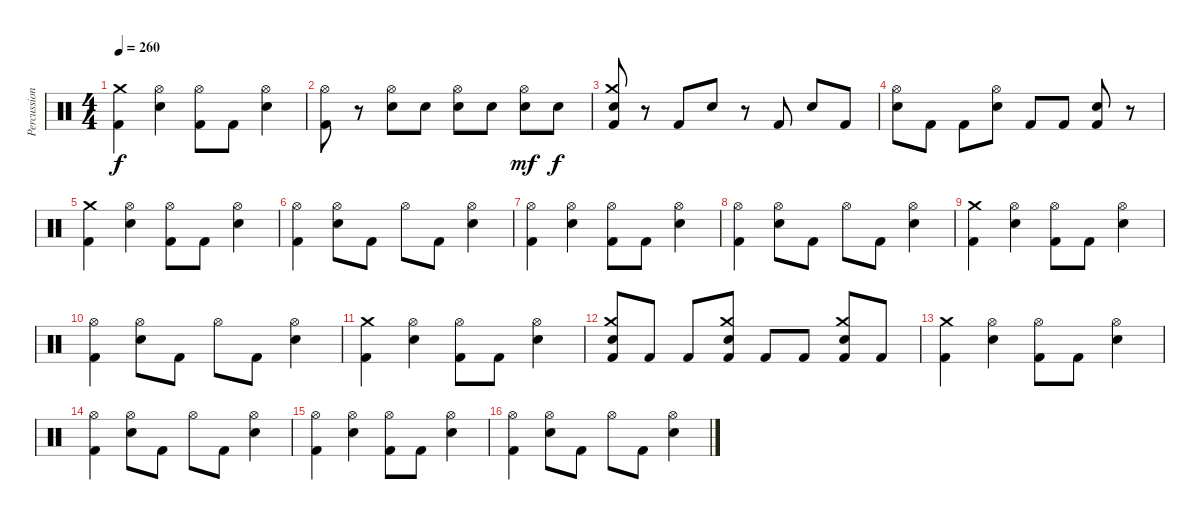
\track ("Percussion" "Percussion") {instrument percussion}
\staff {score}
\articulation defaults
\ts (4 4)
\tempo 260
\clef neutral
\ks c
("Kick (hit) 2" "Crash medium (hit)").4{dy f} ("Electric Snare (hit)" "Hi-Hat (open)").4 ("Kick (hit) 2" "Hi-Hat (open)").8 "Kick (hit) 2".8 ("Electric Snare (hit)" "Hi-Hat (open)").4 |
("Kick (hit) 2" "Hi-Hat (open)").8 r.8 ("Electric Snare (hit)" "Hi-Hat (open)").8 "Electric Snare (hit)".8 ("Electric Snare (hit)" "Hi-Hat (open)").8 "Electric Snare (hit)".8 ("Electric Snare (hit)" "Hi-Hat (open)").8{dy mf} "Electric Snare (hit)".8{dy f} |
("Electric Snare (hit)" "Kick (hit) 2" "Crash medium (hit)").8 r.8 "Kick (hit) 2".8 "Electric Snare (hit)".8 r.8 "Kick (hit) 2".8 "Electric Snare (hit)".8 "Kick (hit) 2".8 |
("Hi-Hat (open)" "Electric Snare (hit)").8 "Kick (hit) 2".8 "Kick (hit) 2".8 ("Hi-Hat (open)" "Electric Snare (hit)").8 "Kick (hit) 2".8 "Kick (hit) 2".8 ("Kick (hit) 2" "Electric Snare (hit)").8 r.8 |
("Kick (hit) 2" "Crash medium (hit)").4 ("Electric Snare (hit)" "Hi-Hat (open)").4 ("Kick (hit) 2" "Hi-Hat (open)").8 "Kick (hit) 2".8 ("Electric Snare (hit)" "Hi-Hat (open)").4 |
("Kick (hit) 2" "Hi-Hat (open)").4 ("Electric Snare (hit)" "Hi-Hat (open)").8 "Kick (hit) 2".8 "Hi-Hat (open)".8 "Kick (hit) 2".8 ("Electric Snare (hit)" "Hi-Hat (open)").4 |
("Kick (hit) 2" "Hi-Hat (open)").4 ("Electric Snare (hit)" "Hi-Hat (open)").4 ("Kick (hit) 2" "Hi-Hat (open)").8 "Kick (hit) 2".8 ("Electric Snare (hit)" "Hi-Hat (open)").4 |
("Kick (hit) 2" "Hi-Hat (open)").4 ("Electric Snare (hit)" "Hi-Hat (open)").8 "Kick (hit) 2".8 "Hi-Hat (open)".8 "Kick (hit) 2".8 ("Electric Snare (hit)" "Hi-Hat (open)").4 |
("Kick (hit) 2" "Crash medium (hit)").4 ("Electric Snare (hit)" "Hi-Hat (open)").4 ("Kick (hit) 2" "Hi-Hat (open)").8 "Kick (hit) 2".8 ("Electric Snare (hit)" "Hi-Hat (open)").4 |
("Kick (hit) 2" "Hi-Hat (open)").4 ("Electric Snare (hit)" "Hi-Hat (open)").8 "Kick (hit) 2".8 "Hi-Hat (open)".8 "Kick (hit) 2".8 ("Electric Snare (hit)" "Hi-Hat (open)").4 |
("Kick (hit) 2" "Crash medium (hit)").4 ("Electric Snare (hit)" "Hi-Hat (open)").4 ("Kick (hit) 2" "Hi-Hat (open)").8 "Kick (hit) 2".8 ("Electric Snare (hit)" "Hi-Hat (open)").4 |
("Kick (hit) 2" "Electric Snare (hit)" "Crash medium (hit)").8 "Kick (hit) 2".8 "Kick (hit) 2".8 ("Kick (hit) 2" "Electric Snare (hit)" "Crash medium (hit)").8 "Kick (hit) 2".8 "Kick (hit) 2".8 ("Kick (hit) 2" "Electric Snare (hit)" "Crash medium (hit)").8 "Kick (hit) 2".8 |
("Kick (hit) 2" "Crash medium (hit)").4 ("Electric Snare (hit)" "Hi-Hat (open)").4 ("Kick (hit) 2" "Hi-Hat (open)").8 "Kick (hit) 2".8 ("Electric Snare (hit)" "Hi-Hat (open)").4 |
("Kick (hit) 2" "Hi-Hat (open)").4 ("Electric Snare (hit)" "Hi-Hat (open)").8 "Kick (hit) 2".8 "Hi-Hat (open)".8 "Kick (hit) 2".8 ("Electric Snare (hit)" "Hi-Hat (open)").4 |
("Kick (hit) 2" "Hi-Hat (open)").4 ("Electric Snare (hit)" "Hi-Hat (open)").4 ("Kick (hit) 2" "Hi-Hat (open)").8 "Kick (hit) 2".8 ("Electric Snare (hit)" "Hi-Hat (open)").4 |
("Kick (hit) 2" "Hi-Hat (open)").4 ("Electric Snare (hit)" "Hi-Hat (open)").8 "Kick (hit) 2".8 "Hi-Hat (open)".8 "Kick (hit) 2".8 ("Electric Snare (hit)" "Hi-Hat (open)").4
